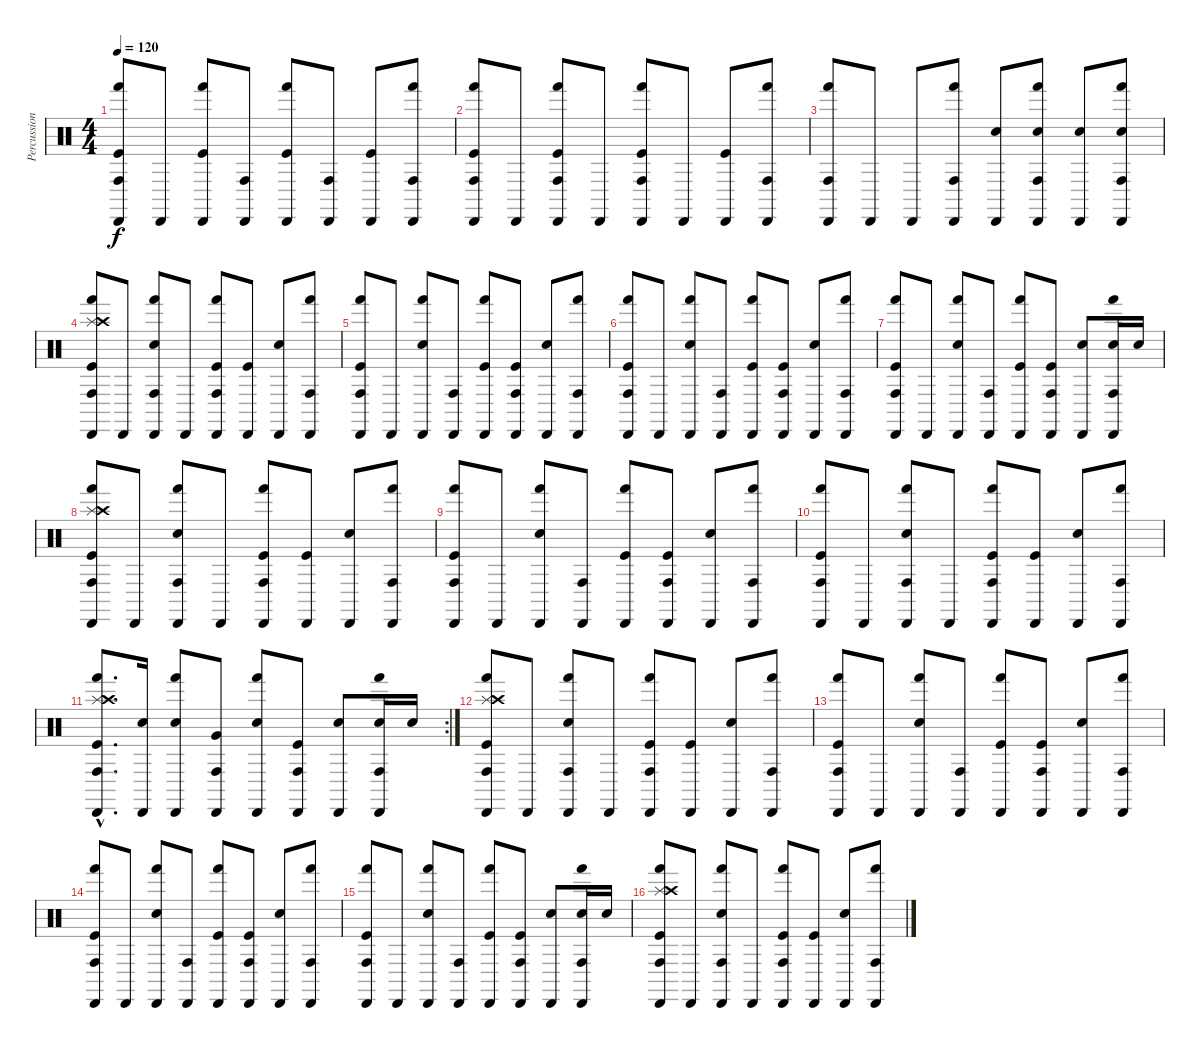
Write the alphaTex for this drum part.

\track ("Percussion" "Percussion") {instrument percussion}
\staff {score}
\articulation defaults
\ts (4 4)
\tempo 120
\clef neutral
\ks c
("Cabasa (hit)" "Kick (hit)" "Hand (hit)" "Conga high (hit)").8{dy f} "Cabasa (hit)".8 ("Cabasa (hit)" "Kick (hit)" "Hand (hit)").8 ("Cabasa (hit)" "Conga high (hit)").8 ("Cabasa (hit)" "Kick (hit)" "Hand (hit)").8 ("Cabasa (hit)" "Conga high (hit)").8 ("Cabasa (hit)" "Kick (hit)").8 ("Cabasa (hit)" "Hand (hit)" "Conga high (hit)").8 |
("Cabasa (hit)" "Kick (hit)" "Hand (hit)" "Conga high (hit)").8 "Cabasa (hit)".8 ("Cabasa (hit)" "Kick (hit)" "Hand (hit)" "Conga high (hit)").8 "Cabasa (hit)".8 ("Cabasa (hit)" "Kick (hit)" "Hand (hit)" "Conga high (hit)").8 "Cabasa (hit)".8 ("Cabasa (hit)" "Kick (hit)").8 ("Cabasa (hit)" "Hand (hit)" "Conga high (hit)").8 |
("Cabasa (hit)" "Hand (hit)" "Conga high (hit)").8 "Cabasa (hit)".8 "Cabasa (hit)".8 ("Cabasa (hit)" "Hand (hit)" "Conga high (hit)").8 ("Cabasa (hit)" "Electric Snare (hit)").8 ("Cabasa (hit)" "Electric Snare (hit)" "Hand (hit)" "Conga high (hit)").8 ("Cabasa (hit)" "Electric Snare (hit)").8 ("Cabasa (hit)" "Electric Snare (hit)" "Hand (hit)" "Conga high (hit)").8 |
("Cabasa (hit)" "Kick (hit)" "Hand (hit)" "Conga high (hit)" "Splash (hit)" "Crash high (hit)").8 "Cabasa (hit)".8 ("Cabasa (hit)" "Electric Snare (hit)" "Hand (hit)" "Conga high (hit)").8 "Cabasa (hit)".8 ("Cabasa (hit)" "Kick (hit)" "Hand (hit)" "Conga high (hit)").8 ("Cabasa (hit)" "Kick (hit)").8 ("Cabasa (hit)" "Electric Snare (hit)").8 ("Cabasa (hit)" "Hand (hit)" "Conga high (hit)").8 |
("Cabasa (hit)" "Kick (hit)" "Hand (hit)" "Conga high (hit)").8 "Cabasa (hit)".8 ("Cabasa (hit)" "Electric Snare (hit)" "Hand (hit)").8 ("Cabasa (hit)" "Conga high (hit)").8 ("Cabasa (hit)" "Kick (hit)" "Hand (hit)").8 ("Cabasa (hit)" "Kick (hit)" "Conga high (hit)").8 ("Cabasa (hit)" "Electric Snare (hit)").8 ("Cabasa (hit)" "Hand (hit)" "Conga high (hit)").8 |
("Cabasa (hit)" "Kick (hit)" "Hand (hit)" "Conga high (hit)").8 "Cabasa (hit)".8 ("Cabasa (hit)" "Electric Snare (hit)" "Hand (hit)").8 ("Cabasa (hit)" "Conga high (hit)").8 ("Cabasa (hit)" "Kick (hit)" "Hand (hit)").8 ("Cabasa (hit)" "Kick (hit)" "Conga high (hit)").8 ("Cabasa (hit)" "Electric Snare (hit)").8 ("Cabasa (hit)" "Hand (hit)" "Conga high (hit)").8 |
("Cabasa (hit)" "Kick (hit)" "Hand (hit)" "Conga high (hit)").8 "Cabasa (hit)".8 ("Cabasa (hit)" "Electric Snare (hit)" "Hand (hit)").8 ("Cabasa (hit)" "Conga high (hit)").8 ("Cabasa (hit)" "Kick (hit)" "Hand (hit)").8 ("Cabasa (hit)" "Kick (hit)" "Conga high (hit)").8 ("Cabasa (hit)" "Electric Snare (hit)").8 ("Cabasa (hit)" "Snare (hit) 2" "Hand (hit)" "Conga high (hit)").16 "Snare (hit) 2".16 |
("Cabasa (hit)" "Kick (hit)" "Hand (hit)" "Conga high (hit)" "Splash (hit)" "Crash high (hit)").8 "Cabasa (hit)".8 ("Cabasa (hit)" "Electric Snare (hit)" "Hand (hit)" "Conga high (hit)").8 "Cabasa (hit)".8 ("Cabasa (hit)" "Kick (hit)" "Hand (hit)" "Conga high (hit)").8 ("Cabasa (hit)" "Kick (hit)").8 ("Cabasa (hit)" "Electric Snare (hit)").8 ("Cabasa (hit)" "Hand (hit)" "Conga high (hit)").8 |
("Cabasa (hit)" "Kick (hit)" "Hand (hit)" "Conga high (hit)").8 "Cabasa (hit)".8 ("Cabasa (hit)" "Electric Snare (hit)" "Hand (hit)").8 ("Cabasa (hit)" "Conga high (hit)").8 ("Cabasa (hit)" "Kick (hit)" "Hand (hit)").8 ("Cabasa (hit)" "Kick (hit)" "Conga high (hit)").8 ("Cabasa (hit)" "Electric Snare (hit)").8 ("Cabasa (hit)" "Hand (hit)" "Conga high (hit)").8 |
("Cabasa (hit)" "Kick (hit)" "Hand (hit)" "Conga high (hit)").8 "Cabasa (hit)".8 ("Cabasa (hit)" "Electric Snare (hit)" "Hand (hit)" "Conga high (hit)").8 "Cabasa (hit)".8 ("Cabasa (hit)" "Kick (hit)" "Hand (hit)" "Conga high (hit)").8 ("Cabasa (hit)" "Kick (hit)").8 ("Cabasa (hit)" "Electric Snare (hit)").8 ("Cabasa (hit)" "Hand (hit)" "Conga high (hit)").8 |
\rc 2
("Cabasa (hit)"{hac} "Kick (hit)"{hac} "Hand (hit)"{hac} "Conga high (hit)"{hac} "Splash (hit)"{hac} "Crash high (hit)"{hac}).8{d} ("Cabasa (hit)" "Snare (hit) 2").16 ("Cabasa (hit)" "Snare (hit) 2" "Hand (hit)").8 ("Cabasa (hit)" "Very Low Tom (hit)" "Conga high (hit)").8 ("Cabasa (hit)" "Snare (hit) 2" "Hand (hit)").8 ("Cabasa (hit)" "Kick (hit)" "Conga high (hit)").8 ("Cabasa (hit)" "Snare (hit) 2").8 ("Cabasa (hit)" "Snare (hit) 2" "Hand (hit)" "Conga high (hit)").16 "Snare (hit) 2".16 |
("Cabasa (hit)" "Kick (hit)" "Hand (hit)" "Conga high (hit)" "Splash (hit)" "Crash high (hit)").8 "Cabasa (hit)".8 ("Cabasa (hit)" "Electric Snare (hit)" "Hand (hit)" "Conga high (hit)").8 "Cabasa (hit)".8 ("Cabasa (hit)" "Kick (hit)" "Hand (hit)" "Conga high (hit)").8 ("Cabasa (hit)" "Kick (hit)").8 ("Cabasa (hit)" "Electric Snare (hit)").8 ("Cabasa (hit)" "Hand (hit)" "Conga high (hit)").8 |
("Cabasa (hit)" "Kick (hit)" "Hand (hit)" "Conga high (hit)").8 "Cabasa (hit)".8 ("Cabasa (hit)" "Electric Snare (hit)" "Hand (hit)").8 ("Cabasa (hit)" "Conga high (hit)").8 ("Cabasa (hit)" "Kick (hit)" "Hand (hit)").8 ("Cabasa (hit)" "Kick (hit)" "Conga high (hit)").8 ("Cabasa (hit)" "Electric Snare (hit)").8 ("Cabasa (hit)" "Hand (hit)" "Conga high (hit)").8 |
("Cabasa (hit)" "Kick (hit)" "Hand (hit)" "Conga high (hit)").8 "Cabasa (hit)".8 ("Cabasa (hit)" "Electric Snare (hit)" "Hand (hit)").8 ("Cabasa (hit)" "Conga high (hit)").8 ("Cabasa (hit)" "Kick (hit)" "Hand (hit)").8 ("Cabasa (hit)" "Kick (hit)" "Conga high (hit)").8 ("Cabasa (hit)" "Electric Snare (hit)").8 ("Cabasa (hit)" "Hand (hit)" "Conga high (hit)").8 |
("Cabasa (hit)" "Kick (hit)" "Hand (hit)" "Conga high (hit)").8 "Cabasa (hit)".8 ("Cabasa (hit)" "Electric Snare (hit)" "Hand (hit)").8 ("Cabasa (hit)" "Conga high (hit)").8 ("Cabasa (hit)" "Kick (hit)" "Hand (hit)").8 ("Cabasa (hit)" "Kick (hit)" "Conga high (hit)").8 ("Cabasa (hit)" "Electric Snare (hit)").8 ("Cabasa (hit)" "Snare (hit) 2" "Hand (hit)" "Conga high (hit)").16 "Snare (hit) 2".16 |
("Cabasa (hit)" "Kick (hit)" "Hand (hit)" "Conga high (hit)" "Splash (hit)" "Crash high (hit)").8 "Cabasa (hit)".8 ("Cabasa (hit)" "Electric Snare (hit)" "Hand (hit)" "Conga high (hit)").8 "Cabasa (hit)".8 ("Cabasa (hit)" "Kick (hit)" "Hand (hit)" "Conga high (hit)").8 ("Cabasa (hit)" "Kick (hit)").8 ("Cabasa (hit)" "Electric Snare (hit)").8 ("Cabasa (hit)" "Hand (hit)" "Conga high (hit)").8
